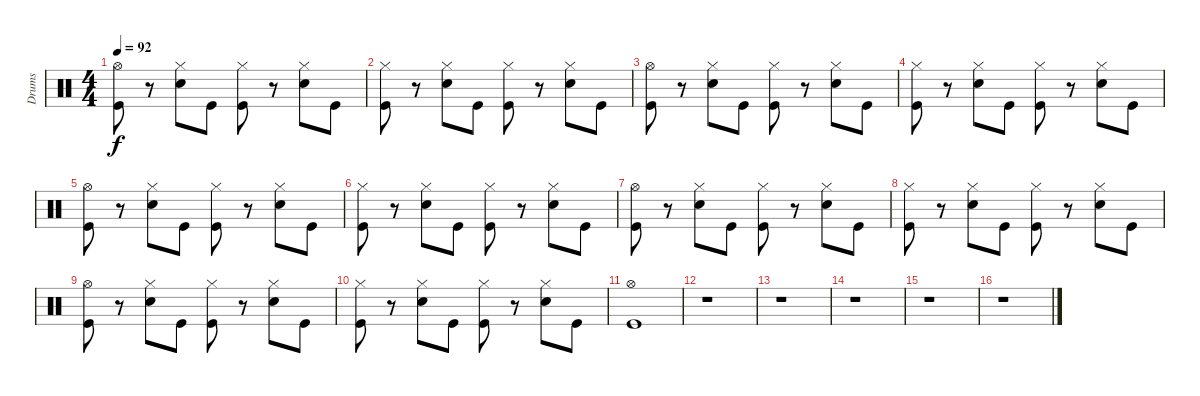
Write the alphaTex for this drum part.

\track ("Drums" "Drums") {instrument percussion}
\staff {score}
\articulation defaults
\ts (4 4)
\tempo 92
\clef neutral
\ks c
("Hi-Hat (open)" "Kick (hit)").8{dy f} r.8 ("Hi-Hat (closed)" "Snare (hit) 2").8 "Kick (hit)".8 ("Hi-Hat (closed)" "Kick (hit)").8 r.8 ("Hi-Hat (closed)" "Snare (hit) 2").8 "Kick (hit)".8 |
("Hi-Hat (closed)" "Kick (hit)").8 r.8 ("Hi-Hat (closed)" "Snare (hit) 2").8 "Kick (hit)".8 ("Hi-Hat (closed)" "Kick (hit)").8 r.8 ("Hi-Hat (closed)" "Snare (hit) 2").8 "Kick (hit)".8 |
("Hi-Hat (open)" "Kick (hit)").8 r.8 ("Hi-Hat (closed)" "Snare (hit) 2").8 "Kick (hit)".8 ("Hi-Hat (closed)" "Kick (hit)").8 r.8 ("Hi-Hat (closed)" "Snare (hit) 2").8 "Kick (hit)".8 |
("Hi-Hat (closed)" "Kick (hit)").8 r.8 ("Hi-Hat (closed)" "Snare (hit) 2").8 "Kick (hit)".8 ("Hi-Hat (closed)" "Kick (hit)").8 r.8 ("Hi-Hat (closed)" "Snare (hit) 2").8 "Kick (hit)".8 |
("Hi-Hat (open)" "Kick (hit)").8 r.8 ("Hi-Hat (closed)" "Snare (hit) 2").8 "Kick (hit)".8 ("Hi-Hat (closed)" "Kick (hit)").8 r.8 ("Hi-Hat (closed)" "Snare (hit) 2").8 "Kick (hit)".8 |
("Hi-Hat (closed)" "Kick (hit)").8 r.8 ("Hi-Hat (closed)" "Snare (hit) 2").8 "Kick (hit)".8 ("Hi-Hat (closed)" "Kick (hit)").8 r.8 ("Hi-Hat (closed)" "Snare (hit) 2").8 "Kick (hit)".8 |
("Hi-Hat (open)" "Kick (hit)").8 r.8 ("Hi-Hat (closed)" "Snare (hit) 2").8 "Kick (hit)".8 ("Hi-Hat (closed)" "Kick (hit)").8 r.8 ("Hi-Hat (closed)" "Snare (hit) 2").8 "Kick (hit)".8 |
("Hi-Hat (closed)" "Kick (hit)").8 r.8 ("Hi-Hat (closed)" "Snare (hit) 2").8 "Kick (hit)".8 ("Hi-Hat (closed)" "Kick (hit)").8 r.8 ("Hi-Hat (closed)" "Snare (hit) 2").8 "Kick (hit)".8 |
("Hi-Hat (open)" "Kick (hit)").8 r.8 ("Hi-Hat (closed)" "Snare (hit) 2").8 "Kick (hit)".8 ("Hi-Hat (closed)" "Kick (hit)").8 r.8 ("Hi-Hat (closed)" "Snare (hit) 2").8 "Kick (hit)".8 |
("Hi-Hat (closed)" "Kick (hit)").8 r.8 ("Hi-Hat (closed)" "Snare (hit) 2").8 "Kick (hit)".8 ("Hi-Hat (closed)" "Kick (hit)").8 r.8 ("Hi-Hat (closed)" "Snare (hit) 2").8 "Kick (hit)".8 |
("Hi-Hat (open)" "Kick (hit)").1 |
r.1 |
r.1 |
r.1 |
r.1 |
r.1
